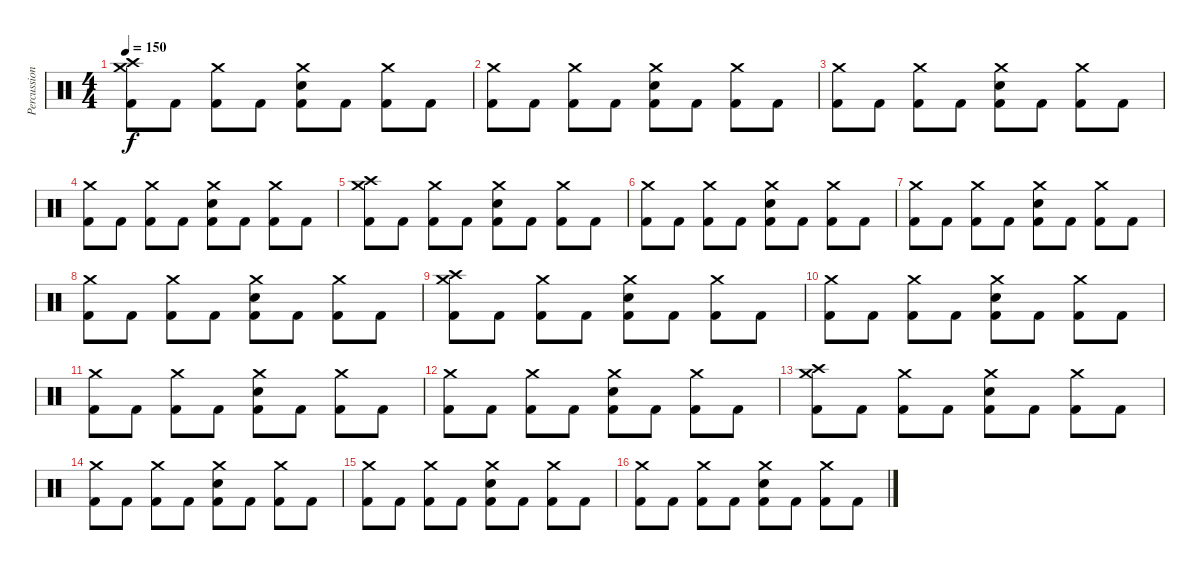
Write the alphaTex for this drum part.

\track ("Percussion" "Percussion") {instrument percussion}
\staff {score}
\articulation defaults
\ts (4 4)
\tempo 150
\clef neutral
\ks c
("Crash medium (hit)" "Crash high (hit)" "Kick (hit) 2").8{dy f} "Kick (hit) 2".8 ("Crash medium (hit)" "Kick (hit) 2").8 "Kick (hit) 2".8 ("Crash medium (hit)" "Electric Snare (hit)" "Kick (hit) 2").8 "Kick (hit) 2".8 ("Crash medium (hit)" "Kick (hit) 2").8 "Kick (hit) 2".8 |
("Crash medium (hit)" "Kick (hit) 2").8 "Kick (hit) 2".8 ("Crash medium (hit)" "Kick (hit) 2").8 "Kick (hit) 2".8 ("Crash medium (hit)" "Electric Snare (hit)" "Kick (hit) 2").8 "Kick (hit) 2".8 ("Crash medium (hit)" "Kick (hit) 2").8 "Kick (hit) 2".8 |
("Crash medium (hit)" "Kick (hit) 2").8 "Kick (hit) 2".8 ("Crash medium (hit)" "Kick (hit) 2").8 "Kick (hit) 2".8 ("Crash medium (hit)" "Electric Snare (hit)" "Kick (hit) 2").8 "Kick (hit) 2".8 ("Crash medium (hit)" "Kick (hit) 2").8 "Kick (hit) 2".8 |
("Crash medium (hit)" "Kick (hit) 2").8 "Kick (hit) 2".8 ("Crash medium (hit)" "Kick (hit) 2").8 "Kick (hit) 2".8 ("Crash medium (hit)" "Electric Snare (hit)" "Kick (hit) 2").8 "Kick (hit) 2".8 ("Crash medium (hit)" "Kick (hit) 2").8 "Kick (hit) 2".8 |
("Crash medium (hit)" "Crash high (hit)" "Kick (hit) 2").8 "Kick (hit) 2".8 ("Crash medium (hit)" "Kick (hit) 2").8 "Kick (hit) 2".8 ("Crash medium (hit)" "Electric Snare (hit)" "Kick (hit) 2").8 "Kick (hit) 2".8 ("Crash medium (hit)" "Kick (hit) 2").8 "Kick (hit) 2".8 |
("Crash medium (hit)" "Kick (hit) 2").8 "Kick (hit) 2".8 ("Crash medium (hit)" "Kick (hit) 2").8 "Kick (hit) 2".8 ("Crash medium (hit)" "Electric Snare (hit)" "Kick (hit) 2").8 "Kick (hit) 2".8 ("Crash medium (hit)" "Kick (hit) 2").8 "Kick (hit) 2".8 |
("Crash medium (hit)" "Kick (hit) 2").8 "Kick (hit) 2".8 ("Crash medium (hit)" "Kick (hit) 2").8 "Kick (hit) 2".8 ("Crash medium (hit)" "Electric Snare (hit)" "Kick (hit) 2").8 "Kick (hit) 2".8 ("Crash medium (hit)" "Kick (hit) 2").8 "Kick (hit) 2".8 |
("Crash medium (hit)" "Kick (hit) 2").8 "Kick (hit) 2".8 ("Crash medium (hit)" "Kick (hit) 2").8 "Kick (hit) 2".8 ("Crash medium (hit)" "Electric Snare (hit)" "Kick (hit) 2").8 "Kick (hit) 2".8 ("Crash medium (hit)" "Kick (hit) 2").8 "Kick (hit) 2".8 |
("Crash medium (hit)" "Crash high (hit)" "Kick (hit) 2").8 "Kick (hit) 2".8 ("Crash medium (hit)" "Kick (hit) 2").8 "Kick (hit) 2".8 ("Crash medium (hit)" "Electric Snare (hit)" "Kick (hit) 2").8 "Kick (hit) 2".8 ("Crash medium (hit)" "Kick (hit) 2").8 "Kick (hit) 2".8 |
("Crash medium (hit)" "Kick (hit) 2").8 "Kick (hit) 2".8 ("Crash medium (hit)" "Kick (hit) 2").8 "Kick (hit) 2".8 ("Crash medium (hit)" "Electric Snare (hit)" "Kick (hit) 2").8 "Kick (hit) 2".8 ("Crash medium (hit)" "Kick (hit) 2").8 "Kick (hit) 2".8 |
("Crash medium (hit)" "Kick (hit) 2").8 "Kick (hit) 2".8 ("Crash medium (hit)" "Kick (hit) 2").8 "Kick (hit) 2".8 ("Crash medium (hit)" "Electric Snare (hit)" "Kick (hit) 2").8 "Kick (hit) 2".8 ("Crash medium (hit)" "Kick (hit) 2").8 "Kick (hit) 2".8 |
("Crash medium (hit)" "Kick (hit) 2").8 "Kick (hit) 2".8 ("Crash medium (hit)" "Kick (hit) 2").8 "Kick (hit) 2".8 ("Crash medium (hit)" "Electric Snare (hit)" "Kick (hit) 2").8 "Kick (hit) 2".8 ("Crash medium (hit)" "Kick (hit) 2").8 "Kick (hit) 2".8 |
("Crash medium (hit)" "Crash high (hit)" "Kick (hit) 2").8 "Kick (hit) 2".8 ("Crash medium (hit)" "Kick (hit) 2").8 "Kick (hit) 2".8 ("Crash medium (hit)" "Electric Snare (hit)" "Kick (hit) 2").8 "Kick (hit) 2".8 ("Crash medium (hit)" "Kick (hit) 2").8 "Kick (hit) 2".8 |
("Crash medium (hit)" "Kick (hit) 2").8 "Kick (hit) 2".8 ("Crash medium (hit)" "Kick (hit) 2").8 "Kick (hit) 2".8 ("Crash medium (hit)" "Electric Snare (hit)" "Kick (hit) 2").8 "Kick (hit) 2".8 ("Crash medium (hit)" "Kick (hit) 2").8 "Kick (hit) 2".8 |
("Crash medium (hit)" "Kick (hit) 2").8 "Kick (hit) 2".8 ("Crash medium (hit)" "Kick (hit) 2").8 "Kick (hit) 2".8 ("Crash medium (hit)" "Electric Snare (hit)" "Kick (hit) 2").8 "Kick (hit) 2".8 ("Crash medium (hit)" "Kick (hit) 2").8 "Kick (hit) 2".8 |
("Crash medium (hit)" "Kick (hit) 2").8 "Kick (hit) 2".8 ("Crash medium (hit)" "Kick (hit) 2").8 "Kick (hit) 2".8 ("Crash medium (hit)" "Electric Snare (hit)" "Kick (hit) 2").8 "Kick (hit) 2".8 ("Crash medium (hit)" "Kick (hit) 2").8 "Kick (hit) 2".8
